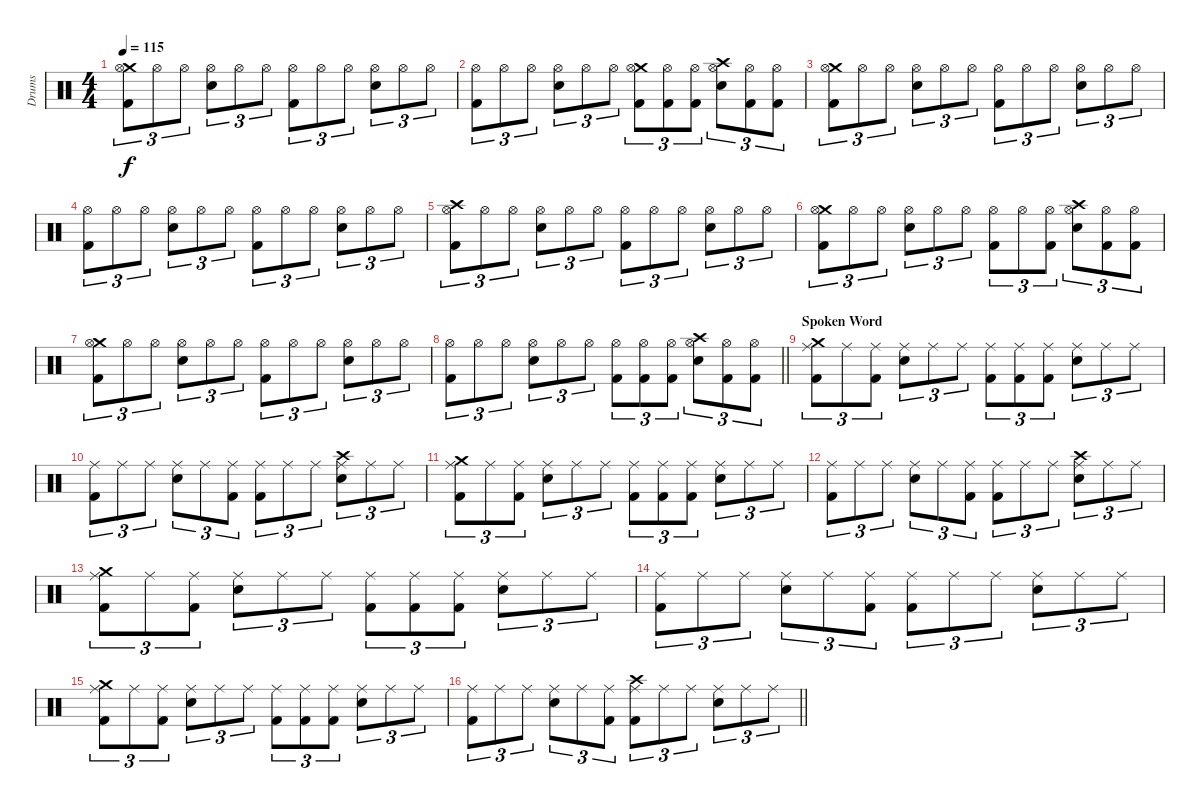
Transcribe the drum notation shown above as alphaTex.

\track ("Drums" "Drums") {instrument percussion}
\staff {score}
\articulation defaults
\ts (4 4)
\tempo 115
\clef neutral
\ks c
("Crash medium (hit)" "Hi-Hat (open)" "Kick (hit) 2").8{tu (3 2) dy f} "Hi-Hat (open)".8{tu (3 2)} "Hi-Hat (open)".8{tu (3 2)} ("Hi-Hat (open)" "Snare (hit) 2").8{tu (3 2)} "Hi-Hat (open)".8{tu (3 2)} "Hi-Hat (open)".8{tu (3 2)} ("Hi-Hat (open)" "Kick (hit) 2").8{tu (3 2)} "Hi-Hat (open)".8{tu (3 2)} "Hi-Hat (open)".8{tu (3 2)} ("Hi-Hat (open)" "Snare (hit) 2").8{tu (3 2)} "Hi-Hat (open)".8{tu (3 2)} "Hi-Hat (open)".8{tu (3 2)} |
("Hi-Hat (open)" "Kick (hit) 2").8{tu (3 2)} "Hi-Hat (open)".8{tu (3 2)} "Hi-Hat (open)".8{tu (3 2)} ("Hi-Hat (open)" "Snare (hit) 2").8{tu (3 2)} "Hi-Hat (open)".8{tu (3 2)} "Hi-Hat (open)".8{tu (3 2)} ("Crash medium (hit)" "Hi-Hat (open)" "Kick (hit) 2").8{tu (3 2)} ("Hi-Hat (open)" "Kick (hit) 2").8{tu (3 2)} ("Hi-Hat (open)" "Kick (hit) 2").8{tu (3 2)} ("Crash high (hit)" "Hi-Hat (open)" "Snare (hit) 2").8{tu (3 2)} ("Hi-Hat (open)" "Kick (hit) 2").8{tu (3 2)} ("Hi-Hat (open)" "Kick (hit) 2").8{tu (3 2)} |
("Crash medium (hit)" "Hi-Hat (open)" "Kick (hit) 2").8{tu (3 2)} "Hi-Hat (open)".8{tu (3 2)} "Hi-Hat (open)".8{tu (3 2)} ("Hi-Hat (open)" "Snare (hit) 2").8{tu (3 2)} "Hi-Hat (open)".8{tu (3 2)} "Hi-Hat (open)".8{tu (3 2)} ("Hi-Hat (open)" "Kick (hit) 2").8{tu (3 2)} "Hi-Hat (open)".8{tu (3 2)} "Hi-Hat (open)".8{tu (3 2)} ("Hi-Hat (open)" "Snare (hit) 2").8{tu (3 2)} "Hi-Hat (open)".8{tu (3 2)} "Hi-Hat (open)".8{tu (3 2)} |
("Hi-Hat (open)" "Kick (hit) 2").8{tu (3 2)} "Hi-Hat (open)".8{tu (3 2)} "Hi-Hat (open)".8{tu (3 2)} ("Hi-Hat (open)" "Snare (hit) 2").8{tu (3 2)} "Hi-Hat (open)".8{tu (3 2)} "Hi-Hat (open)".8{tu (3 2)} ("Hi-Hat (open)" "Kick (hit) 2").8{tu (3 2)} "Hi-Hat (open)".8{tu (3 2)} "Hi-Hat (open)".8{tu (3 2)} ("Hi-Hat (open)" "Snare (hit) 2").8{tu (3 2)} "Hi-Hat (open)".8{tu (3 2)} "Hi-Hat (open)".8{tu (3 2)} |
("Crash high (hit)" "Hi-Hat (open)" "Kick (hit) 2").8{tu (3 2)} "Hi-Hat (open)".8{tu (3 2)} "Hi-Hat (open)".8{tu (3 2)} ("Hi-Hat (open)" "Snare (hit) 2").8{tu (3 2)} "Hi-Hat (open)".8{tu (3 2)} "Hi-Hat (open)".8{tu (3 2)} ("Hi-Hat (open)" "Kick (hit) 2").8{tu (3 2)} "Hi-Hat (open)".8{tu (3 2)} "Hi-Hat (open)".8{tu (3 2)} ("Hi-Hat (open)" "Snare (hit) 2").8{tu (3 2)} "Hi-Hat (open)".8{tu (3 2)} "Hi-Hat (open)".8{tu (3 2)} |
("Crash medium (hit)" "Hi-Hat (open)" "Kick (hit) 2").8{tu (3 2)} "Hi-Hat (open)".8{tu (3 2)} "Hi-Hat (open)".8{tu (3 2)} ("Hi-Hat (open)" "Snare (hit) 2").8{tu (3 2)} "Hi-Hat (open)".8{tu (3 2)} "Hi-Hat (open)".8{tu (3 2)} ("Hi-Hat (open)" "Kick (hit) 2").8{tu (3 2)} "Hi-Hat (open)".8{tu (3 2)} ("Hi-Hat (open)" "Kick (hit) 2").8{tu (3 2)} ("Crash high (hit)" "Hi-Hat (open)" "Snare (hit) 2").8{tu (3 2)} ("Hi-Hat (open)" "Kick (hit) 2").8{tu (3 2)} ("Hi-Hat (open)" "Kick (hit) 2").8{tu (3 2)} |
("Crash medium (hit)" "Hi-Hat (open)" "Kick (hit) 2").8{tu (3 2)} "Hi-Hat (open)".8{tu (3 2)} "Hi-Hat (open)".8{tu (3 2)} ("Hi-Hat (open)" "Snare (hit) 2").8{tu (3 2)} "Hi-Hat (open)".8{tu (3 2)} "Hi-Hat (open)".8{tu (3 2)} ("Hi-Hat (open)" "Kick (hit) 2").8{tu (3 2)} "Hi-Hat (open)".8{tu (3 2)} "Hi-Hat (open)".8{tu (3 2)} ("Hi-Hat (open)" "Snare (hit) 2").8{tu (3 2)} "Hi-Hat (open)".8{tu (3 2)} "Hi-Hat (open)".8{tu (3 2)} |
\barLineRight lightlight
("Hi-Hat (open)" "Kick (hit) 2").8{tu (3 2)} "Hi-Hat (open)".8{tu (3 2)} "Hi-Hat (open)".8{tu (3 2)} ("Hi-Hat (open)" "Snare (hit) 2").8{tu (3 2)} "Hi-Hat (open)".8{tu (3 2)} "Hi-Hat (open)".8{tu (3 2)} ("Hi-Hat (open)" "Kick (hit) 2").8{tu (3 2)} ("Hi-Hat (open)" "Kick (hit) 2").8{tu (3 2)} ("Hi-Hat (open)" "Kick (hit) 2").8{tu (3 2)} ("Crash high (hit)" "Hi-Hat (open)" "Snare (hit) 2").8{tu (3 2)} ("Hi-Hat (open)" "Kick (hit) 2").8{tu (3 2)} ("Hi-Hat (open)" "Kick (hit) 2").8{tu (3 2)} |
\section ("" "Spoken Word")
("Crash medium (hit)" "Ride (middle)" "Kick (hit) 2").8{tu (3 2)} "Ride (middle)".8{tu (3 2)} ("Ride (middle)" "Kick (hit) 2").8{tu (3 2)} ("Ride (middle)" "Snare (hit) 2").8{tu (3 2)} "Ride (middle)".8{tu (3 2)} "Ride (middle)".8{tu (3 2)} ("Ride (middle)" "Kick (hit) 2").8{tu (3 2)} ("Ride (middle)" "Kick (hit) 2").8{tu (3 2)} ("Ride (middle)" "Kick (hit) 2").8{tu (3 2)} ("Ride (middle)" "Snare (hit) 2").8{tu (3 2)} "Ride (middle)".8{tu (3 2)} "Ride (middle)".8{tu (3 2)} |
("Ride (middle)" "Kick (hit) 2").8{tu (3 2)} "Ride (middle)".8{tu (3 2)} "Ride (middle)".8{tu (3 2)} ("Ride (middle)" "Snare (hit) 2").8{tu (3 2)} "Ride (middle)".8{tu (3 2)} ("Ride (middle)" "Kick (hit) 2").8{tu (3 2)} ("Ride (middle)" "Kick (hit) 2").8{tu (3 2)} "Ride (middle)".8{tu (3 2)} "Ride (middle)".8{tu (3 2)} ("Crash high (hit)" "Ride (middle)" "Snare (hit) 2").8{tu (3 2)} "Ride (middle)".8{tu (3 2)} "Ride (middle)".8{tu (3 2)} |
("Crash medium (hit)" "Ride (middle)" "Kick (hit) 2").8{tu (3 2)} "Ride (middle)".8{tu (3 2)} ("Ride (middle)" "Kick (hit) 2").8{tu (3 2)} ("Ride (middle)" "Snare (hit) 2").8{tu (3 2)} "Ride (middle)".8{tu (3 2)} "Ride (middle)".8{tu (3 2)} ("Ride (middle)" "Kick (hit) 2").8{tu (3 2)} ("Ride (middle)" "Kick (hit) 2").8{tu (3 2)} ("Ride (middle)" "Kick (hit) 2").8{tu (3 2)} ("Ride (middle)" "Snare (hit) 2").8{tu (3 2)} "Ride (middle)".8{tu (3 2)} "Ride (middle)".8{tu (3 2)} |
("Ride (middle)" "Kick (hit) 2").8{tu (3 2)} "Ride (middle)".8{tu (3 2)} "Ride (middle)".8{tu (3 2)} ("Ride (middle)" "Snare (hit) 2").8{tu (3 2)} "Ride (middle)".8{tu (3 2)} ("Ride (middle)" "Kick (hit) 2").8{tu (3 2)} ("Ride (middle)" "Kick (hit) 2").8{tu (3 2)} "Ride (middle)".8{tu (3 2)} "Ride (middle)".8{tu (3 2)} ("Crash high (hit)" "Ride (middle)" "Snare (hit) 2").8{tu (3 2)} "Ride (middle)".8{tu (3 2)} "Ride (middle)".8{tu (3 2)} |
("Crash medium (hit)" "Ride (middle)" "Kick (hit) 2").8{tu (3 2)} "Ride (middle)".8{tu (3 2)} ("Ride (middle)" "Kick (hit) 2").8{tu (3 2)} ("Ride (middle)" "Snare (hit) 2").8{tu (3 2)} "Ride (middle)".8{tu (3 2)} "Ride (middle)".8{tu (3 2)} ("Ride (middle)" "Kick (hit) 2").8{tu (3 2)} ("Ride (middle)" "Kick (hit) 2").8{tu (3 2)} ("Ride (middle)" "Kick (hit) 2").8{tu (3 2)} ("Ride (middle)" "Snare (hit) 2").8{tu (3 2)} "Ride (middle)".8{tu (3 2)} "Ride (middle)".8{tu (3 2)} |
("Ride (middle)" "Kick (hit) 2").8{tu (3 2)} "Ride (middle)".8{tu (3 2)} "Ride (middle)".8{tu (3 2)} ("Ride (middle)" "Snare (hit) 2").8{tu (3 2)} "Ride (middle)".8{tu (3 2)} ("Ride (middle)" "Kick (hit) 2").8{tu (3 2)} ("Ride (middle)" "Kick (hit) 2").8{tu (3 2)} "Ride (middle)".8{tu (3 2)} "Ride (middle)".8{tu (3 2)} ("Ride (middle)" "Snare (hit) 2").8{tu (3 2)} "Ride (middle)".8{tu (3 2)} "Ride (middle)".8{tu (3 2)} |
("Crash medium (hit)" "Ride (middle)" "Kick (hit) 2").8{tu (3 2)} "Ride (middle)".8{tu (3 2)} ("Ride (middle)" "Kick (hit) 2").8{tu (3 2)} ("Ride (middle)" "Snare (hit) 2").8{tu (3 2)} "Ride (middle)".8{tu (3 2)} "Ride (middle)".8{tu (3 2)} ("Ride (middle)" "Kick (hit) 2").8{tu (3 2)} ("Ride (middle)" "Kick (hit) 2").8{tu (3 2)} ("Ride (middle)" "Kick (hit) 2").8{tu (3 2)} ("Ride (middle)" "Snare (hit) 2").8{tu (3 2)} "Ride (middle)".8{tu (3 2)} "Ride (middle)".8{tu (3 2)} |
\barLineRight lightlight
("Ride (middle)" "Kick (hit) 2").8{tu (3 2)} "Ride (middle)".8{tu (3 2)} "Ride (middle)".8{tu (3 2)} ("Ride (middle)" "Snare (hit) 2").8{tu (3 2)} "Ride (middle)".8{tu (3 2)} ("Ride (middle)" "Kick (hit) 2").8{tu (3 2)} ("Crash high (hit)" "Ride (middle)" "Kick (hit) 2").8{tu (3 2)} "Ride (middle)".8{tu (3 2)} "Ride (middle)".8{tu (3 2)} ("Ride (middle)" "Snare (hit) 2").8{tu (3 2)} "Ride (middle)".8{tu (3 2)} "Ride (middle)".8{tu (3 2)}
